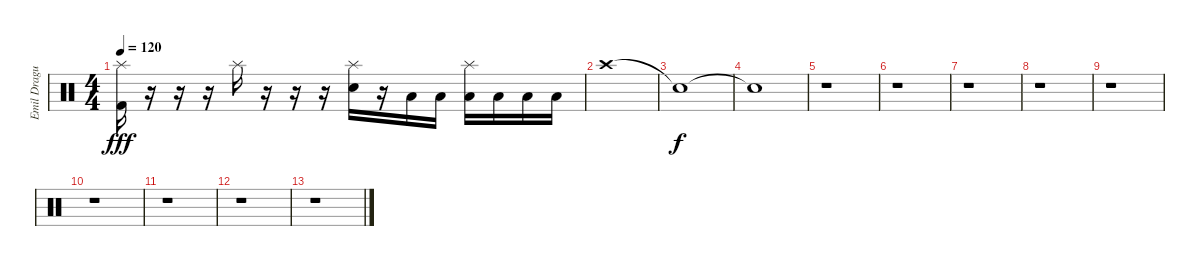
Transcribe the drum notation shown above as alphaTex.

\track ("Emil Dragutinovic" "Emil Dragu") {instrument percussion}
\staff {score}
\articulation defaults
\ts (4 4)
\tempo 120
\clef neutral
\ks c
("Splash (hit)" "Kick (hit) 2").16{dy fff} r.16 r.16 r.16 "Splash (hit)".16 r.16 r.16 r.16 ("Splash (hit)" "Electric Snare (hit)").16 r.16 "Low Tom (hit)".16 "Low Tom (hit)".16 ("Splash (hit)" "Low Tom (hit)").16 "Low Floor Tom (hit)".16 "Low Floor Tom (hit)".16 "Low Floor Tom (hit)".16 |
"Crash high (hit)".1 |
"Snare (hit)"{t}.1{dy f} |
"Snare (hit)"{t}.1 |
r.1 |
r.1 |
r.1 |
r.1 |
r.1 |
r.1 |
r.1 |
r.1 |
r.1
